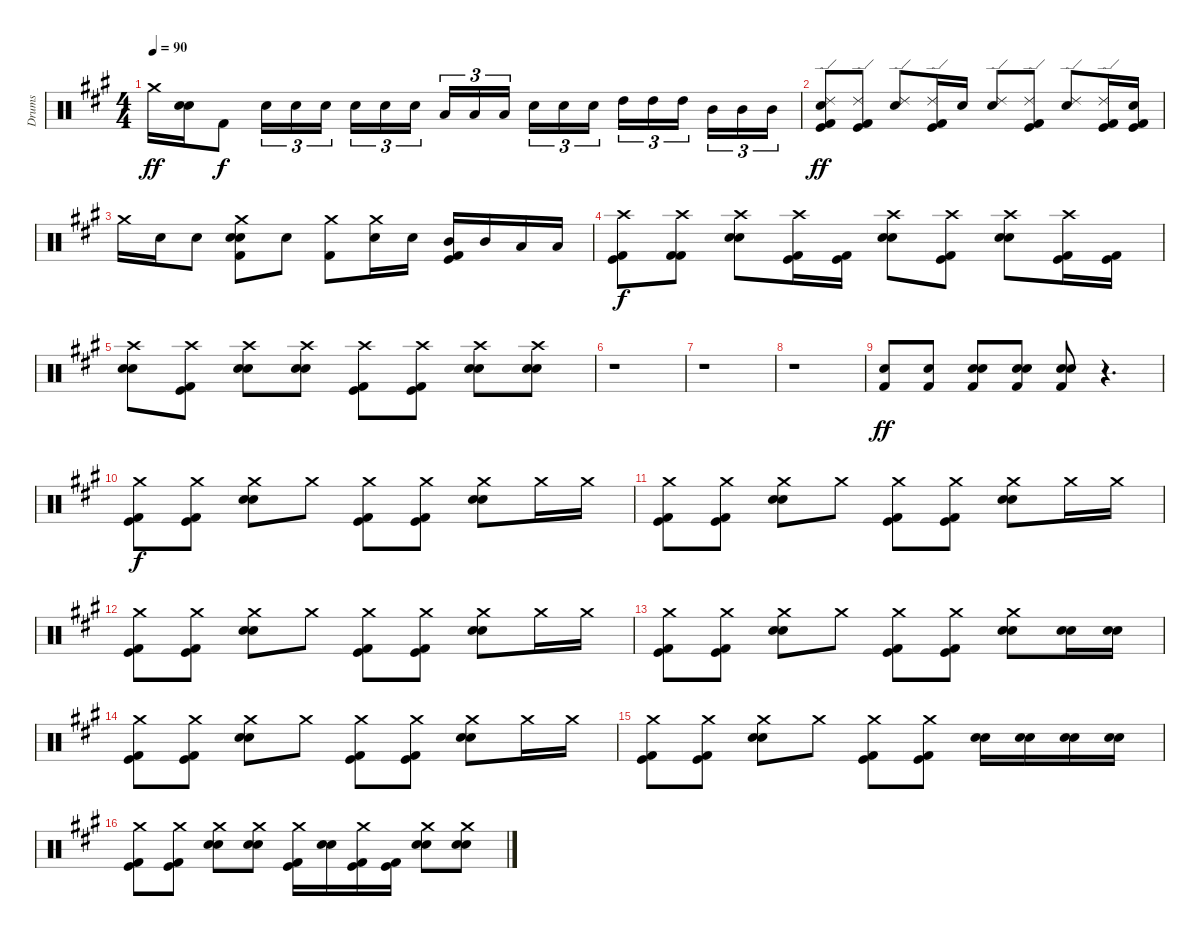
\track ("Drums" "Drums") {instrument percussion}
\staff {score}
\articulation defaults
\ts (4 4)
\tempo 90
\clef neutral
\ks a "Crash medium (hit)".16{dy ff}
("Electric Snare (hit)" "Snare (hit) 2").16 "Kick (hit) 2".8{dy f} "Electric Snare (hit)".16{tu (3 2)} "Electric Snare (hit)".16{tu (3 2)} "Electric Snare (hit)".16{tu (3 2) beam splitsecondary} "Electric Snare (hit)".16{tu (3 2)} "Electric Snare (hit)".16{tu (3 2)} "Electric Snare (hit)".16{tu (3 2)} "Low Tom (hit)".16{tu (3 2)} "Low Tom (hit)".16{tu (3 2)} "Low Tom (hit)".16{tu (3 2) beam splitsecondary} "Electric Snare (hit)".16{tu (3 2)} "Electric Snare (hit)".16{tu (3 2)} "Electric Snare (hit)".16{tu (3 2)} "High Tom (hit)".16{tu (3 2)} "High Tom (hit)".16{tu (3 2)} "High Tom (hit)".16{tu (3 2) beam splitsecondary} "Mid Tom (hit)".16{tu (3 2)} "Mid Tom (hit)".16{tu (3 2)} "Mid Tom (hit)".16{tu (3 2)} |
("Kick (hit)" "Kick (hit) 2" "Electric Snare (hit)" "Ride (edge) 2").8{dy ff} ("Kick (hit)" "Kick (hit) 2" "Ride (edge) 2").8 ("Electric Snare (hit)" "Ride (edge) 2").8 ("Kick (hit)" "Kick (hit) 2" "Ride (edge) 2").16 "Electric Snare (hit)".16 ("Electric Snare (hit)" "Ride (edge) 2").8 ("Kick (hit)" "Kick (hit) 2" "Ride (edge) 2").8 ("Electric Snare (hit)" "Ride (edge) 2").8 ("Kick (hit)" "Kick (hit) 2" "Ride (edge) 2").16 ("Kick (hit)" "Kick (hit) 2" "Electric Snare (hit)").16 |
"Crash medium (hit)".16 "Electric Snare (hit)".16 "Snare (hit) 2".8 ("Kick (hit) 2" "Snare (hit) 2" "Electric Snare (hit)" "Crash medium (hit)").8 "Electric Snare (hit)".8 ("Kick (hit) 2" "Crash medium (hit)").8 ("Electric Snare (hit)" "Crash medium (hit)").16 "Electric Snare (hit)".16 ("Kick (hit)" "Kick (hit) 2" "Mid Tom (hit)").16 "Mid Tom (hit)".16 "Low Tom (hit)".16 "Low Tom (hit)".16 |
("Crash high (hit)" "Kick (hit) 2" "Kick (hit)").8{dy f} ("Crash high (hit)" "Kick (hit) 2" "Kick (hit) 2").8 ("Crash high (hit)" "Electric Snare (hit)" "Snare (hit) 2").8 ("Crash high (hit)" "Kick (hit) 2" "Kick (hit)").16 ("Kick (hit) 2" "Kick (hit)").16 ("Crash high (hit)" "Electric Snare (hit)" "Snare (hit) 2").8 ("Crash high (hit)" "Kick (hit) 2" "Kick (hit)").8 ("Crash high (hit)" "Electric Snare (hit)" "Snare (hit) 2").8 ("Crash high (hit)" "Kick (hit) 2" "Kick (hit)").16 ("Kick (hit) 2" "Kick (hit)").16 |
("Crash high (hit)" "Electric Snare (hit)" "Snare (hit) 2").8 ("Crash high (hit)" "Kick (hit) 2" "Kick (hit)").8 ("Crash high (hit)" "Electric Snare (hit)" "Snare (hit) 2").8 ("Crash high (hit)" "Electric Snare (hit)" "Snare (hit) 2").8 ("Crash high (hit)" "Kick (hit) 2" "Kick (hit)").8 ("Crash high (hit)" "Kick (hit) 2" "Kick (hit)").8 ("Crash high (hit)" "Electric Snare (hit)" "Snare (hit) 2").8 ("Crash high (hit)" "Electric Snare (hit)" "Snare (hit) 2").8 |
r.1{volume 0} |
r.1 |
r.1 |
("Kick (hit) 2" "Snare (hit) 2").8{dy ff volume 10} ("Kick (hit) 2" "Snare (hit) 2").8{volume 14} ("Kick (hit) 2" "Snare (hit) 2" "Electric Snare (hit)").8 ("Kick (hit) 2" "Snare (hit) 2" "Electric Snare (hit)").8 ("Kick (hit) 2" "Snare (hit) 2" "Electric Snare (hit)").8 r.4{d} |
("Crash medium (hit)" "Kick (hit) 2" "Kick (hit)").8{dy f volume 11} ("Crash medium (hit)" "Kick (hit) 2" "Kick (hit)").8 ("Crash medium (hit)" "Electric Snare (hit)" "Snare (hit) 2").8 "Crash medium (hit)".8 ("Crash medium (hit)" "Kick (hit) 2" "Kick (hit)").8 ("Crash medium (hit)" "Kick (hit) 2" "Kick (hit)").8 ("Crash medium (hit)" "Electric Snare (hit)" "Snare (hit) 2").8 "Crash medium (hit)".16 "Crash medium (hit)".16 |
("Crash medium (hit)" "Kick (hit) 2" "Kick (hit)").8 ("Crash medium (hit)" "Kick (hit) 2" "Kick (hit)").8 ("Crash medium (hit)" "Electric Snare (hit)" "Snare (hit) 2").8 "Crash medium (hit)".8 ("Crash medium (hit)" "Kick (hit) 2" "Kick (hit)").8 ("Crash medium (hit)" "Kick (hit) 2" "Kick (hit)").8 ("Crash medium (hit)" "Electric Snare (hit)" "Snare (hit) 2").8 "Crash medium (hit)".16 "Crash medium (hit)".16 |
("Crash medium (hit)" "Kick (hit) 2" "Kick (hit)").8 ("Crash medium (hit)" "Kick (hit) 2" "Kick (hit)").8 ("Crash medium (hit)" "Electric Snare (hit)" "Snare (hit) 2").8 "Crash medium (hit)".8 ("Crash medium (hit)" "Kick (hit) 2" "Kick (hit)").8 ("Crash medium (hit)" "Kick (hit) 2" "Kick (hit)").8 ("Crash medium (hit)" "Electric Snare (hit)" "Snare (hit) 2").8 "Crash medium (hit)".16 "Crash medium (hit)".16 |
("Crash medium (hit)" "Kick (hit) 2" "Kick (hit)").8 ("Crash medium (hit)" "Kick (hit) 2" "Kick (hit)").8 ("Crash medium (hit)" "Electric Snare (hit)" "Snare (hit) 2").8 "Crash medium (hit)".8 ("Crash medium (hit)" "Kick (hit) 2" "Kick (hit)").8 ("Crash medium (hit)" "Kick (hit) 2" "Kick (hit)").8 ("Crash medium (hit)" "Electric Snare (hit)" "Snare (hit) 2").8 ("Electric Snare (hit)" "Snare (hit) 2").16 ("Electric Snare (hit)" "Snare (hit) 2").16 |
("Crash medium (hit)" "Kick (hit) 2" "Kick (hit)").8 ("Crash medium (hit)" "Kick (hit) 2" "Kick (hit)").8 ("Crash medium (hit)" "Electric Snare (hit)" "Snare (hit) 2").8 "Crash medium (hit)".8 ("Crash medium (hit)" "Kick (hit) 2" "Kick (hit)").8 ("Crash medium (hit)" "Kick (hit) 2" "Kick (hit)").8 ("Crash medium (hit)" "Electric Snare (hit)" "Snare (hit) 2").8 "Crash medium (hit)".16 "Crash medium (hit)".16 |
("Crash medium (hit)" "Kick (hit) 2" "Kick (hit)").8 ("Crash medium (hit)" "Kick (hit) 2" "Kick (hit)").8 ("Crash medium (hit)" "Electric Snare (hit)" "Snare (hit) 2").8 "Crash medium (hit)".8 ("Crash medium (hit)" "Kick (hit) 2" "Kick (hit)").8 ("Crash medium (hit)" "Kick (hit) 2" "Kick (hit)").8 ("Electric Snare (hit)" "Snare (hit) 2").16 ("Electric Snare (hit)" "Snare (hit) 2").16 ("Electric Snare (hit)" "Snare (hit) 2").16 ("Electric Snare (hit)" "Snare (hit) 2").16 |
("Crash medium (hit)" "Kick (hit) 2" "Kick (hit)").8 ("Crash medium (hit)" "Kick (hit) 2" "Kick (hit)").8 ("Crash medium (hit)" "Electric Snare (hit)" "Snare (hit) 2").8 ("Crash medium (hit)" "Electric Snare (hit)" "Snare (hit) 2").8 ("Crash medium (hit)" "Kick (hit) 2" "Kick (hit)").16 ("Electric Snare (hit)" "Snare (hit) 2").16 ("Crash medium (hit)" "Kick (hit) 2" "Kick (hit)").16 ("Kick (hit) 2" "Kick (hit)").16 ("Crash medium (hit)" "Electric Snare (hit)" "Snare (hit) 2").8 ("Crash medium (hit)" "Electric Snare (hit)" "Snare (hit) 2").8
